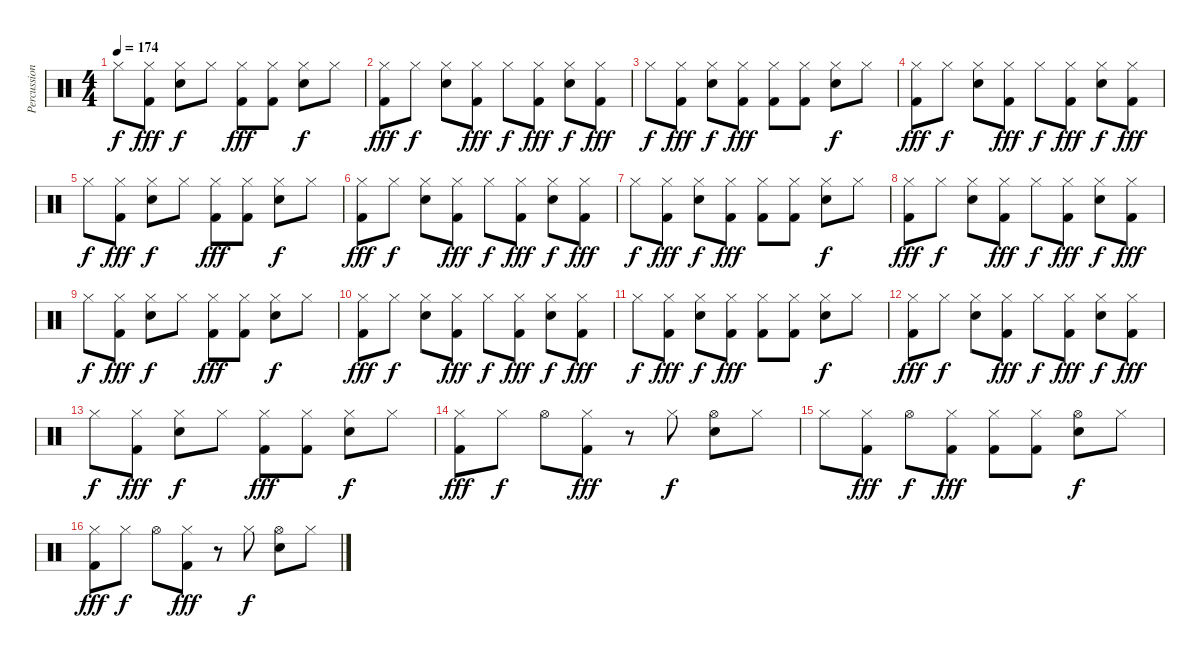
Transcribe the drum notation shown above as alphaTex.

\track ("Percussion" "Percussion") {instrument percussion}
\staff {score}
\articulation defaults
\ts (4 4)
\tempo 174
\clef neutral
\ks c "Hi-Hat (closed)".8{dy f}
("Hi-Hat (closed)" "Kick (hit) 2").8{dy fff} ("Hi-Hat (closed)" "Snare (hit) 2").8{dy f} "Hi-Hat (closed)".8 ("Hi-Hat (closed)" "Kick (hit) 2").8{dy fff} ("Hi-Hat (closed)" "Kick (hit) 2").8 ("Hi-Hat (closed)" "Snare (hit) 2").8{dy f} "Hi-Hat (closed)".8 |
("Hi-Hat (closed)" "Kick (hit) 2").8{dy fff} "Hi-Hat (closed)".8{dy f} ("Hi-Hat (closed)" "Snare (hit) 2").8 ("Hi-Hat (closed)" "Kick (hit) 2").8{dy fff} "Hi-Hat (closed)".8{dy f} ("Hi-Hat (closed)" "Kick (hit) 2").8{dy fff} ("Hi-Hat (closed)" "Snare (hit) 2").8{dy f} ("Hi-Hat (closed)" "Kick (hit) 2").8{dy fff} |
"Hi-Hat (closed)".8{dy f} ("Hi-Hat (closed)" "Kick (hit) 2").8{dy fff} ("Hi-Hat (closed)" "Snare (hit) 2").8{dy f} ("Hi-Hat (closed)" "Kick (hit) 2").8{dy fff} ("Hi-Hat (closed)" "Kick (hit) 2").8 ("Hi-Hat (closed)" "Kick (hit) 2").8 ("Hi-Hat (closed)" "Snare (hit) 2").8{dy f} "Hi-Hat (closed)".8 |
("Hi-Hat (closed)" "Kick (hit) 2").8{dy fff} "Hi-Hat (closed)".8{dy f} ("Hi-Hat (closed)" "Snare (hit) 2").8 ("Hi-Hat (closed)" "Kick (hit) 2").8{dy fff} "Hi-Hat (closed)".8{dy f} ("Hi-Hat (closed)" "Kick (hit) 2").8{dy fff} ("Hi-Hat (closed)" "Snare (hit) 2").8{dy f} ("Hi-Hat (closed)" "Kick (hit) 2").8{dy fff} |
"Hi-Hat (closed)".8{dy f} ("Hi-Hat (closed)" "Kick (hit) 2").8{dy fff} ("Hi-Hat (closed)" "Snare (hit) 2").8{dy f} "Hi-Hat (closed)".8 ("Hi-Hat (closed)" "Kick (hit) 2").8{dy fff} ("Hi-Hat (closed)" "Kick (hit) 2").8 ("Hi-Hat (closed)" "Snare (hit) 2").8{dy f} "Hi-Hat (closed)".8 |
("Hi-Hat (closed)" "Kick (hit) 2").8{dy fff} "Hi-Hat (closed)".8{dy f} ("Hi-Hat (closed)" "Snare (hit) 2").8 ("Hi-Hat (closed)" "Kick (hit) 2").8{dy fff} "Hi-Hat (closed)".8{dy f} ("Hi-Hat (closed)" "Kick (hit) 2").8{dy fff} ("Hi-Hat (closed)" "Snare (hit) 2").8{dy f} ("Hi-Hat (closed)" "Kick (hit) 2").8{dy fff} |
"Hi-Hat (closed)".8{dy f} ("Hi-Hat (closed)" "Kick (hit) 2").8{dy fff} ("Hi-Hat (closed)" "Snare (hit) 2").8{dy f} ("Hi-Hat (closed)" "Kick (hit) 2").8{dy fff} ("Hi-Hat (closed)" "Kick (hit) 2").8 ("Hi-Hat (closed)" "Kick (hit) 2").8 ("Hi-Hat (closed)" "Snare (hit) 2").8{dy f} "Hi-Hat (closed)".8 |
("Hi-Hat (closed)" "Kick (hit) 2").8{dy fff} "Hi-Hat (closed)".8{dy f} ("Hi-Hat (closed)" "Snare (hit) 2").8 ("Hi-Hat (closed)" "Kick (hit) 2").8{dy fff} "Hi-Hat (closed)".8{dy f} ("Hi-Hat (closed)" "Kick (hit) 2").8{dy fff} ("Hi-Hat (closed)" "Snare (hit) 2").8{dy f} ("Hi-Hat (closed)" "Kick (hit) 2").8{dy fff} |
"Hi-Hat (closed)".8{dy f} ("Hi-Hat (closed)" "Kick (hit) 2").8{dy fff} ("Hi-Hat (closed)" "Snare (hit) 2").8{dy f} "Hi-Hat (closed)".8 ("Hi-Hat (closed)" "Kick (hit) 2").8{dy fff} ("Hi-Hat (closed)" "Kick (hit) 2").8 ("Hi-Hat (closed)" "Snare (hit) 2").8{dy f} "Hi-Hat (closed)".8 |
("Hi-Hat (closed)" "Kick (hit) 2").8{dy fff} "Hi-Hat (closed)".8{dy f} ("Hi-Hat (closed)" "Snare (hit) 2").8 ("Hi-Hat (closed)" "Kick (hit) 2").8{dy fff} "Hi-Hat (closed)".8{dy f} ("Hi-Hat (closed)" "Kick (hit) 2").8{dy fff} ("Hi-Hat (closed)" "Snare (hit) 2").8{dy f} ("Hi-Hat (closed)" "Kick (hit) 2").8{dy fff} |
"Hi-Hat (closed)".8{dy f} ("Hi-Hat (closed)" "Kick (hit) 2").8{dy fff} ("Hi-Hat (closed)" "Snare (hit) 2").8{dy f} ("Hi-Hat (closed)" "Kick (hit) 2").8{dy fff} ("Hi-Hat (closed)" "Kick (hit) 2").8 ("Hi-Hat (closed)" "Kick (hit) 2").8 ("Hi-Hat (closed)" "Snare (hit) 2").8{dy f} "Hi-Hat (closed)".8 |
("Hi-Hat (closed)" "Kick (hit) 2").8{dy fff} "Hi-Hat (closed)".8{dy f} ("Hi-Hat (closed)" "Snare (hit) 2").8 ("Hi-Hat (closed)" "Kick (hit) 2").8{dy fff} "Hi-Hat (closed)".8{dy f} ("Hi-Hat (closed)" "Kick (hit) 2").8{dy fff} ("Hi-Hat (closed)" "Snare (hit) 2").8{dy f} ("Hi-Hat (closed)" "Kick (hit) 2").8{dy fff} |
"Hi-Hat (closed)".8{dy f} ("Hi-Hat (closed)" "Kick (hit) 2").8{dy fff} ("Hi-Hat (closed)" "Snare (hit) 2").8{dy f} "Hi-Hat (closed)".8 ("Hi-Hat (closed)" "Kick (hit) 2").8{dy fff} ("Hi-Hat (closed)" "Kick (hit) 2").8 ("Hi-Hat (closed)" "Snare (hit) 2").8{dy f} "Hi-Hat (closed)".8 |
("Hi-Hat (closed)" "Kick (hit) 2").8{dy fff} "Hi-Hat (closed)".8{dy f} "Hi-Hat (open)".8 ("Hi-Hat (closed)" "Kick (hit) 2").8{dy fff} r.8 "Hi-Hat (closed)".8{dy f} ("Hi-Hat (open)" "Snare (hit) 2").8 "Hi-Hat (closed)".8 |
"Hi-Hat (closed)".8 ("Hi-Hat (closed)" "Kick (hit) 2").8{dy fff} "Hi-Hat (open)".8{dy f} ("Hi-Hat (closed)" "Kick (hit) 2").8{dy fff} ("Hi-Hat (closed)" "Kick (hit) 2").8 ("Hi-Hat (closed)" "Kick (hit) 2").8 ("Hi-Hat (open)" "Snare (hit) 2").8{dy f} "Hi-Hat (closed)".8 |
("Hi-Hat (closed)" "Kick (hit) 2").8{dy fff} "Hi-Hat (closed)".8{dy f} "Hi-Hat (open)".8 ("Hi-Hat (closed)" "Kick (hit) 2").8{dy fff} r.8 "Hi-Hat (closed)".8{dy f} ("Hi-Hat (open)" "Snare (hit) 2").8 "Hi-Hat (closed)".8
